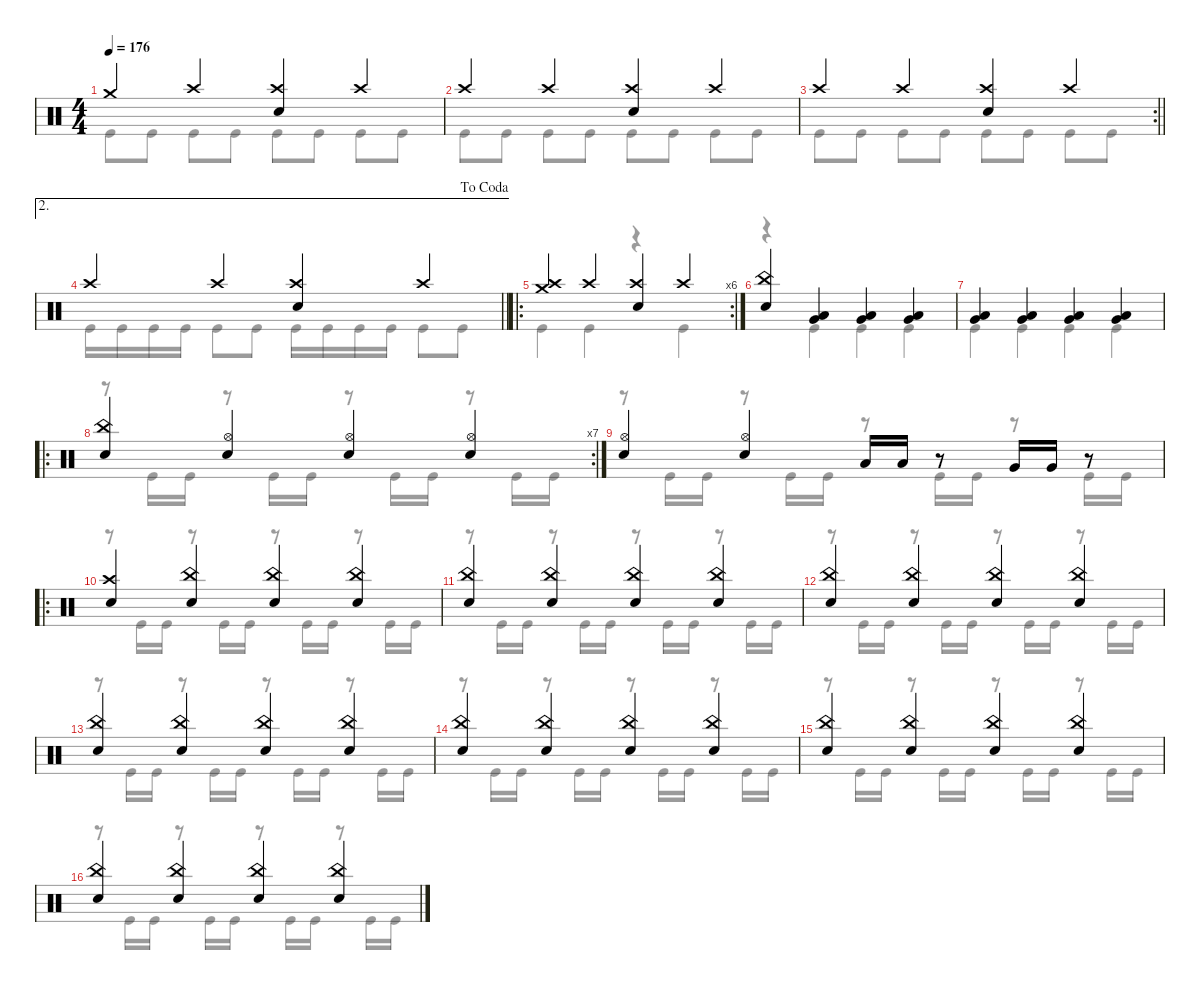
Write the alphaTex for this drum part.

\defaultSystemsLayout 4
\hideDynamics
\bracketExtendMode nobrackets
\singleTrackTrackNamePolicy hidden
\multiTrackTrackNamePolicy hidden
\firstSystemTrackNameMode fullname
\firstSystemTrackNameOrientation horizontal
\otherSystemsTrackNameOrientation horizontal
\track ("Drums" "drm.") {instrument percussion}
\staff {score}
\articulation defaults
\voice
\ts (4 4)
\tempo 176
\clef neutral
\ks c "Crash medium (hit)".4{dy f beam Up} "Crash high (hit)".4{beam Up}
("Crash high (hit)" "Snare (hit) 2").4{beam Up} "Crash high (hit)".4{beam Up} |
"Crash high (hit)".4{beam Up} "Crash high (hit)".4{beam Up} ("Crash high (hit)" "Snare (hit) 2").4{beam Up} "Crash high (hit)".4{beam Up} |
\rc 2
\barLineRight lightlight "Crash high (hit)".4{beam Up} "Crash high (hit)".4{beam Up}
("Crash high (hit)" "Snare (hit) 2").4{beam Up} "Crash high (hit)".4{beam Up} |
\ae 2
\jump dacoda
\barLineRight lightlight "Crash high (hit)".4{beam Up} "Crash high (hit)".4{beam Up}
("Crash high (hit)" "Snare (hit) 2").4{beam Up} "Crash high (hit)".4{beam Up} |
\ro
\rc 6
("Crash medium (hit)" "Crash high (hit)").4{beam Up} "Crash high (hit)".4{beam Up} ("Crash high (hit)" "Snare (hit) 2").4{beam Up} "Crash high (hit)".4{beam Up} |
("China (hit)" "Snare (hit) 2").4{beam Up} ("Low Tom (hit)" "Very Low Tom (hit)").4{beam Up} ("Low Tom (hit)" "Very Low Tom (hit)").4{beam Up} ("Low Tom (hit)" "Very Low Tom (hit)").4{beam Up} |
("Very Low Tom (hit)" "Low Tom (hit)").4{beam Up} ("Very Low Tom (hit)" "Low Tom (hit)").4{beam Up} ("Very Low Tom (hit)" "Low Tom (hit)").4{beam Up} ("Very Low Tom (hit)" "Low Tom (hit)").4{beam Up} |
\ro
\rc 7
("China (hit)" "Snare (hit) 2").4{beam Up} ("Snare (hit) 2" "Hi-Hat (open)").4{beam Up} ("Snare (hit) 2" "Hi-Hat (open)").4{beam Up} ("Snare (hit) 2" "Hi-Hat (open)").4{beam Up} |
("Snare (hit) 2" "Hi-Hat (open)").4{beam Up} ("Snare (hit) 2" "Hi-Hat (open)").4{beam Up} "Low Tom (hit)".16{beam Up} "Low Tom (hit)".16{beam Up} r.8{beam Up} "Very Low Tom (hit)".16{beam Up} "Very Low Tom (hit)".16{beam Up} r.8{beam Up} |
\ro
("Snare (hit) 2" "Crash high (hit)").4{beam Up} ("Snare (hit) 2" "China (hit)").4{beam Up} ("Snare (hit) 2" "China (hit)").4{beam Up} ("Snare (hit) 2" "China (hit)").4{beam Up} |
("Snare (hit) 2" "China (hit)").4{beam Up} ("Snare (hit) 2" "China (hit)").4{beam Up} ("Snare (hit) 2" "China (hit)").4{beam Up} ("Snare (hit) 2" "China (hit)").4{beam Up} |
("Snare (hit) 2" "China (hit)").4{beam Up} ("Snare (hit) 2" "China (hit)").4{beam Up} ("Snare (hit) 2" "China (hit)").4{beam Up} ("Snare (hit) 2" "China (hit)").4{beam Up} |
("Snare (hit) 2" "China (hit)").4{beam Up} ("Snare (hit) 2" "China (hit)").4{beam Up} ("Snare (hit) 2" "China (hit)").4{beam Up} ("Snare (hit) 2" "China (hit)").4{beam Up} |
("Snare (hit) 2" "China (hit)").4{beam Up} ("Snare (hit) 2" "China (hit)").4{beam Up} ("Snare (hit) 2" "China (hit)").4{beam Up} ("Snare (hit) 2" "China (hit)").4{beam Up} |
("Snare (hit) 2" "China (hit)").4{beam Up} ("Snare (hit) 2" "China (hit)").4{beam Up} ("Snare (hit) 2" "China (hit)").4{beam Up} ("Snare (hit) 2" "China (hit)").4{beam Up} |
("Snare (hit) 2" "China (hit)").4{beam Up} ("Snare (hit) 2" "China (hit)").4{beam Up} ("Snare (hit) 2" "China (hit)").4{beam Up} ("Snare (hit) 2" "China (hit)").4{beam Up}
\voice
\clef neutral
\ottava regular
\simile none
\ks c "Kick (hit)".8{dy f beam Down} "Kick (hit)".8{beam Down} "Kick (hit)".8{beam Down} "Kick (hit)".8{beam Down} "Kick (hit)".8{beam Down} "Kick (hit)".8{beam Down} "Kick (hit)".8{beam Down} "Kick (hit)".8{beam Down}
|
"Kick (hit)".8{beam Down} "Kick (hit)".8{beam Down} "Kick (hit)".8{beam Down} "Kick (hit)".8{beam Down} "Kick (hit)".8{beam Down} "Kick (hit)".8{beam Down} "Kick (hit)".8{beam Down} "Kick (hit)".8{beam Down} |
\barLineRight lightlight "Kick (hit)".8{beam Down} "Kick (hit)".8{beam Down} "Kick (hit)".8{beam Down} "Kick (hit)".8{beam Down} "Kick (hit)".8{beam Down} "Kick (hit)".8{beam Down} "Kick (hit)".8{beam Down} "Kick (hit)".8{beam Down}
|
\barLineRight lightlight "Kick (hit)".16{beam Down} "Kick (hit)".16{beam Down} "Kick (hit)".16{beam Down} "Kick (hit)".16{beam Down} "Kick (hit)".8{beam Down} "Kick (hit)".8{beam Down} "Kick (hit)".16{beam Down} "Kick (hit)".16{beam Down} "Kick (hit)".16{beam Down} "Kick (hit)".16{beam Down} "Kick (hit)".8{beam Down} "Kick (hit)".8{beam Down}
|
"Kick (hit)".4{beam Down} "Kick (hit)".4{beam Down} r.4{beam Down} "Kick (hit)".4{beam Down} |
r.4{beam Down} "Kick (hit)".4{beam Down} "Kick (hit)".4{beam Down} "Kick (hit)".4{beam Down} |
"Kick (hit)".4{beam Down} "Kick (hit)".4{beam Down} "Kick (hit)".4{beam Down} "Kick (hit)".4{beam Down} |
r.8{beam Down} "Kick (hit)".16{beam Down} "Kick (hit)".16{beam Down} r.8{beam Down} "Kick (hit)".16{beam Down} "Kick (hit)".16{beam Down} r.8{beam Down} "Kick (hit)".16{beam Down} "Kick (hit)".16{beam Down} r.8{beam Down} "Kick (hit)".16{beam Down} "Kick (hit)".16{beam Down} |
r.8{beam Down} "Kick (hit)".16{beam Down} "Kick (hit)".16{beam Down} r.8{beam Down} "Kick (hit)".16{beam Down} "Kick (hit)".16{beam Down} r.8{beam Down} "Kick (hit)".16{beam Down} "Kick (hit)".16{beam Down} r.8{beam Down} "Kick (hit)".16{beam Down} "Kick (hit)".16{beam Down} |
r.8{beam Down} "Kick (hit)".16{beam Down} "Kick (hit)".16{beam Down} r.8{beam Down} "Kick (hit)".16{beam Down} "Kick (hit)".16{beam Down} r.8{beam Down} "Kick (hit)".16{beam Down} "Kick (hit)".16{beam Down} r.8{beam Down} "Kick (hit)".16{beam Down} "Kick (hit)".16{beam Down} |
r.8{beam Down} "Kick (hit)".16{beam Down} "Kick (hit)".16{beam Down} r.8{beam Down} "Kick (hit)".16{beam Down} "Kick (hit)".16{beam Down} r.8{beam Down} "Kick (hit)".16{beam Down} "Kick (hit)".16{beam Down} r.8{beam Down} "Kick (hit)".16{beam Down} "Kick (hit)".16{beam Down} |
r.8{beam Down} "Kick (hit)".16{beam Down} "Kick (hit)".16{beam Down} r.8{beam Down} "Kick (hit)".16{beam Down} "Kick (hit)".16{beam Down} r.8{beam Down} "Kick (hit)".16{beam Down} "Kick (hit)".16{beam Down} r.8{beam Down} "Kick (hit)".16{beam Down} "Kick (hit)".16{beam Down} |
r.8{beam Down} "Kick (hit)".16{beam Down} "Kick (hit)".16{beam Down} r.8{beam Down} "Kick (hit)".16{beam Down} "Kick (hit)".16{beam Down} r.8{beam Down} "Kick (hit)".16{beam Down} "Kick (hit)".16{beam Down} r.8{beam Down} "Kick (hit)".16{beam Down} "Kick (hit)".16{beam Down} |
r.8{beam Down} "Kick (hit)".16{beam Down} "Kick (hit)".16{beam Down} r.8{beam Down} "Kick (hit)".16{beam Down} "Kick (hit)".16{beam Down} r.8{beam Down} "Kick (hit)".16{beam Down} "Kick (hit)".16{beam Down} r.8{beam Down} "Kick (hit)".16{beam Down} "Kick (hit)".16{beam Down} |
r.8{beam Down} "Kick (hit)".16{beam Down} "Kick (hit)".16{beam Down} r.8{beam Down} "Kick (hit)".16{beam Down} "Kick (hit)".16{beam Down} r.8{beam Down} "Kick (hit)".16{beam Down} "Kick (hit)".16{beam Down} r.8{beam Down} "Kick (hit)".16{beam Down} "Kick (hit)".16{beam Down} |
r.8{beam Down} "Kick (hit)".16{beam Down} "Kick (hit)".16{beam Down} r.8{beam Down} "Kick (hit)".16{beam Down} "Kick (hit)".16{beam Down} r.8{beam Down} "Kick (hit)".16{beam Down} "Kick (hit)".16{beam Down} r.8{beam Down} "Kick (hit)".16{beam Down} "Kick (hit)".16{beam Down}
